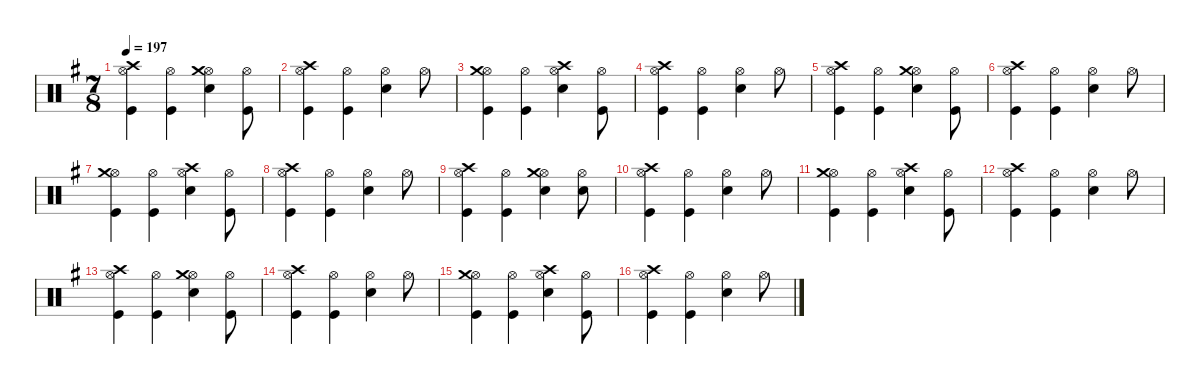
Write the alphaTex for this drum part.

\defaultSystemsLayout 4
\hideDynamics
\bracketExtendMode nobrackets
\singleTrackTrackNamePolicy hidden
\multiTrackTrackNamePolicy hidden
\firstSystemTrackNameMode fullname
\firstSystemTrackNameOrientation horizontal
\otherSystemsTrackNameOrientation horizontal
\track ("Drums" "drm.") {defaultSystemsLayout 4 instrument percussion}
\staff {score}
\articulation defaults
\ts (7 8)
\tempo 197
\clef neutral
\ks eminor
("Hi-Hat (open)"{acc forcenatural} "Crash high (hit)"{acc forcenatural} "Kick (hit)"{acc forcenatural}).4{dy f beam Down} ("Hi-Hat (open)"{acc forcenatural} "Kick (hit)"{acc forcenatural}).4{beam Down} ("Hi-Hat (open)"{acc forcenatural} "Crash medium (hit)"{acc forcenatural} "Snare (hit) 2"{acc forcenatural}).4{beam Down} ("Hi-Hat (open)"{acc forcenatural} "Kick (hit)"{acc forcenatural}).8{beam Down} |
("Hi-Hat (open)"{acc forcenatural} "Crash high (hit)"{acc forcenatural} "Kick (hit)"{acc forcenatural}).4{beam Down} ("Hi-Hat (open)"{acc forcenatural} "Kick (hit)"{acc forcenatural}).4{beam Down} ("Hi-Hat (open)"{acc forcenatural} "Snare (hit) 2"{acc forcenatural}).4{beam Down} "Hi-Hat (open)"{acc forcenatural}.8{beam Down} |
("Hi-Hat (open)"{acc forcenatural} "Crash medium (hit)"{acc forcenatural} "Kick (hit)"{acc forcenatural}).4{beam Down} ("Hi-Hat (open)"{acc forcenatural} "Kick (hit)"{acc forcenatural}).4{beam Down} ("Hi-Hat (open)"{acc forcenatural} "Crash high (hit)"{acc forcenatural} "Snare (hit) 2"{acc forcenatural}).4{beam Down} ("Hi-Hat (open)"{acc forcenatural} "Kick (hit)"{acc forcenatural}).8{beam Down} |
("Hi-Hat (open)"{acc forcenatural} "Crash high (hit)"{acc forcenatural} "Kick (hit)"{acc forcenatural}).4{beam Down} ("Hi-Hat (open)"{acc forcenatural} "Kick (hit)"{acc forcenatural}).4{beam Down} ("Hi-Hat (open)"{acc forcenatural} "Snare (hit) 2"{acc forcenatural}).4{beam Down} "Hi-Hat (open)"{acc forcenatural}.8{beam Down} |
("Hi-Hat (open)"{acc forcenatural} "Crash high (hit)"{acc forcenatural} "Kick (hit)"{acc forcenatural}).4{beam Down} ("Hi-Hat (open)"{acc forcenatural} "Kick (hit)"{acc forcenatural}).4{beam Down} ("Hi-Hat (open)"{acc forcenatural} "Crash medium (hit)"{acc forcenatural} "Snare (hit) 2"{acc forcenatural}).4{beam Down} ("Hi-Hat (open)"{acc forcenatural} "Kick (hit)"{acc forcenatural}).8{beam Down} |
("Hi-Hat (open)"{acc forcenatural} "Crash high (hit)"{acc forcenatural} "Kick (hit)"{acc forcenatural}).4{beam Down} ("Hi-Hat (open)"{acc forcenatural} "Kick (hit)"{acc forcenatural}).4{beam Down} ("Hi-Hat (open)"{acc forcenatural} "Snare (hit) 2"{acc forcenatural}).4{beam Down} "Hi-Hat (open)"{acc forcenatural}.8{beam Down} |
("Hi-Hat (open)"{acc forcenatural} "Crash medium (hit)"{acc forcenatural} "Kick (hit)"{acc forcenatural}).4{beam Down} ("Hi-Hat (open)"{acc forcenatural} "Kick (hit)"{acc forcenatural}).4{beam Down} ("Hi-Hat (open)"{acc forcenatural} "Crash high (hit)"{acc forcenatural} "Snare (hit) 2"{acc forcenatural}).4{beam Down} ("Hi-Hat (open)"{acc forcenatural} "Kick (hit)"{acc forcenatural}).8{beam Down} |
("Hi-Hat (open)"{acc forcenatural} "Crash high (hit)"{acc forcenatural} "Kick (hit)"{acc forcenatural}).4{beam Down} ("Hi-Hat (open)"{acc forcenatural} "Kick (hit)"{acc forcenatural}).4{beam Down} ("Hi-Hat (open)"{acc forcenatural} "Snare (hit) 2"{acc forcenatural}).4{beam Down} "Hi-Hat (open)"{acc forcenatural}.8{beam Down} |
("Hi-Hat (open)"{acc forcenatural} "Crash high (hit)"{acc forcenatural} "Kick (hit)"{acc forcenatural}).4{beam Down} ("Hi-Hat (open)"{acc forcenatural} "Kick (hit)"{acc forcenatural}).4{beam Down} ("Hi-Hat (open)"{acc forcenatural} "Crash medium (hit)"{acc forcenatural} "Snare (hit) 2"{acc forcenatural}).4{beam Down} ("Hi-Hat (open)"{acc forcenatural} "Snare (hit) 2"{acc forcenatural}).8{beam Down} |
("Hi-Hat (open)"{acc forcenatural} "Crash high (hit)"{acc forcenatural} "Kick (hit)"{acc forcenatural}).4{beam Down} ("Hi-Hat (open)"{acc forcenatural} "Kick (hit)"{acc forcenatural}).4{beam Down} ("Hi-Hat (open)"{acc forcenatural} "Snare (hit) 2"{acc forcenatural}).4{beam Down} "Hi-Hat (open)"{acc forcenatural}.8{beam Down} |
("Hi-Hat (open)"{acc forcenatural} "Crash medium (hit)"{acc forcenatural} "Kick (hit)"{acc forcenatural}).4{beam Down} ("Hi-Hat (open)"{acc forcenatural} "Kick (hit)"{acc forcenatural}).4{beam Down} ("Hi-Hat (open)"{acc forcenatural} "Crash high (hit)"{acc forcenatural} "Snare (hit) 2"{acc forcenatural}).4{beam Down} ("Hi-Hat (open)"{acc forcenatural} "Kick (hit)"{acc forcenatural}).8{beam Down} |
("Hi-Hat (open)"{acc forcenatural} "Crash high (hit)"{acc forcenatural} "Kick (hit)"{acc forcenatural}).4{beam Down} ("Hi-Hat (open)"{acc forcenatural} "Kick (hit)"{acc forcenatural}).4{beam Down} ("Hi-Hat (open)"{acc forcenatural} "Snare (hit) 2"{acc forcenatural}).4{beam Down} "Hi-Hat (open)"{acc forcenatural}.8{beam Down} |
("Hi-Hat (open)"{acc forcenatural} "Crash high (hit)"{acc forcenatural} "Kick (hit)"{acc forcenatural}).4{beam Down} ("Hi-Hat (open)"{acc forcenatural} "Kick (hit)"{acc forcenatural}).4{beam Down} ("Hi-Hat (open)"{acc forcenatural} "Crash medium (hit)"{acc forcenatural} "Snare (hit) 2"{acc forcenatural}).4{beam Down} ("Hi-Hat (open)"{acc forcenatural} "Kick (hit)"{acc forcenatural}).8{beam Down} |
("Hi-Hat (open)"{acc forcenatural} "Crash high (hit)"{acc forcenatural} "Kick (hit)"{acc forcenatural}).4{beam Down} ("Hi-Hat (open)"{acc forcenatural} "Kick (hit)"{acc forcenatural}).4{beam Down} ("Hi-Hat (open)"{acc forcenatural} "Snare (hit) 2"{acc forcenatural}).4{beam Down} "Hi-Hat (open)"{acc forcenatural}.8{beam Down} |
("Hi-Hat (open)"{acc forcenatural} "Crash medium (hit)"{acc forcenatural} "Kick (hit)"{acc forcenatural}).4{beam Down} ("Hi-Hat (open)"{acc forcenatural} "Kick (hit)"{acc forcenatural}).4{beam Down} ("Hi-Hat (open)"{acc forcenatural} "Crash high (hit)"{acc forcenatural} "Snare (hit) 2"{acc forcenatural}).4{beam Down} ("Hi-Hat (open)"{acc forcenatural} "Kick (hit)"{acc forcenatural}).8{beam Down} |
("Hi-Hat (open)"{acc forcenatural} "Crash high (hit)"{acc forcenatural} "Kick (hit)"{acc forcenatural}).4{beam Down} ("Hi-Hat (open)"{acc forcenatural} "Kick (hit)"{acc forcenatural}).4{beam Down} ("Hi-Hat (open)"{acc forcenatural} "Snare (hit) 2"{acc forcenatural}).4{beam Down} "Hi-Hat (open)"{acc forcenatural}.8{beam Down}
